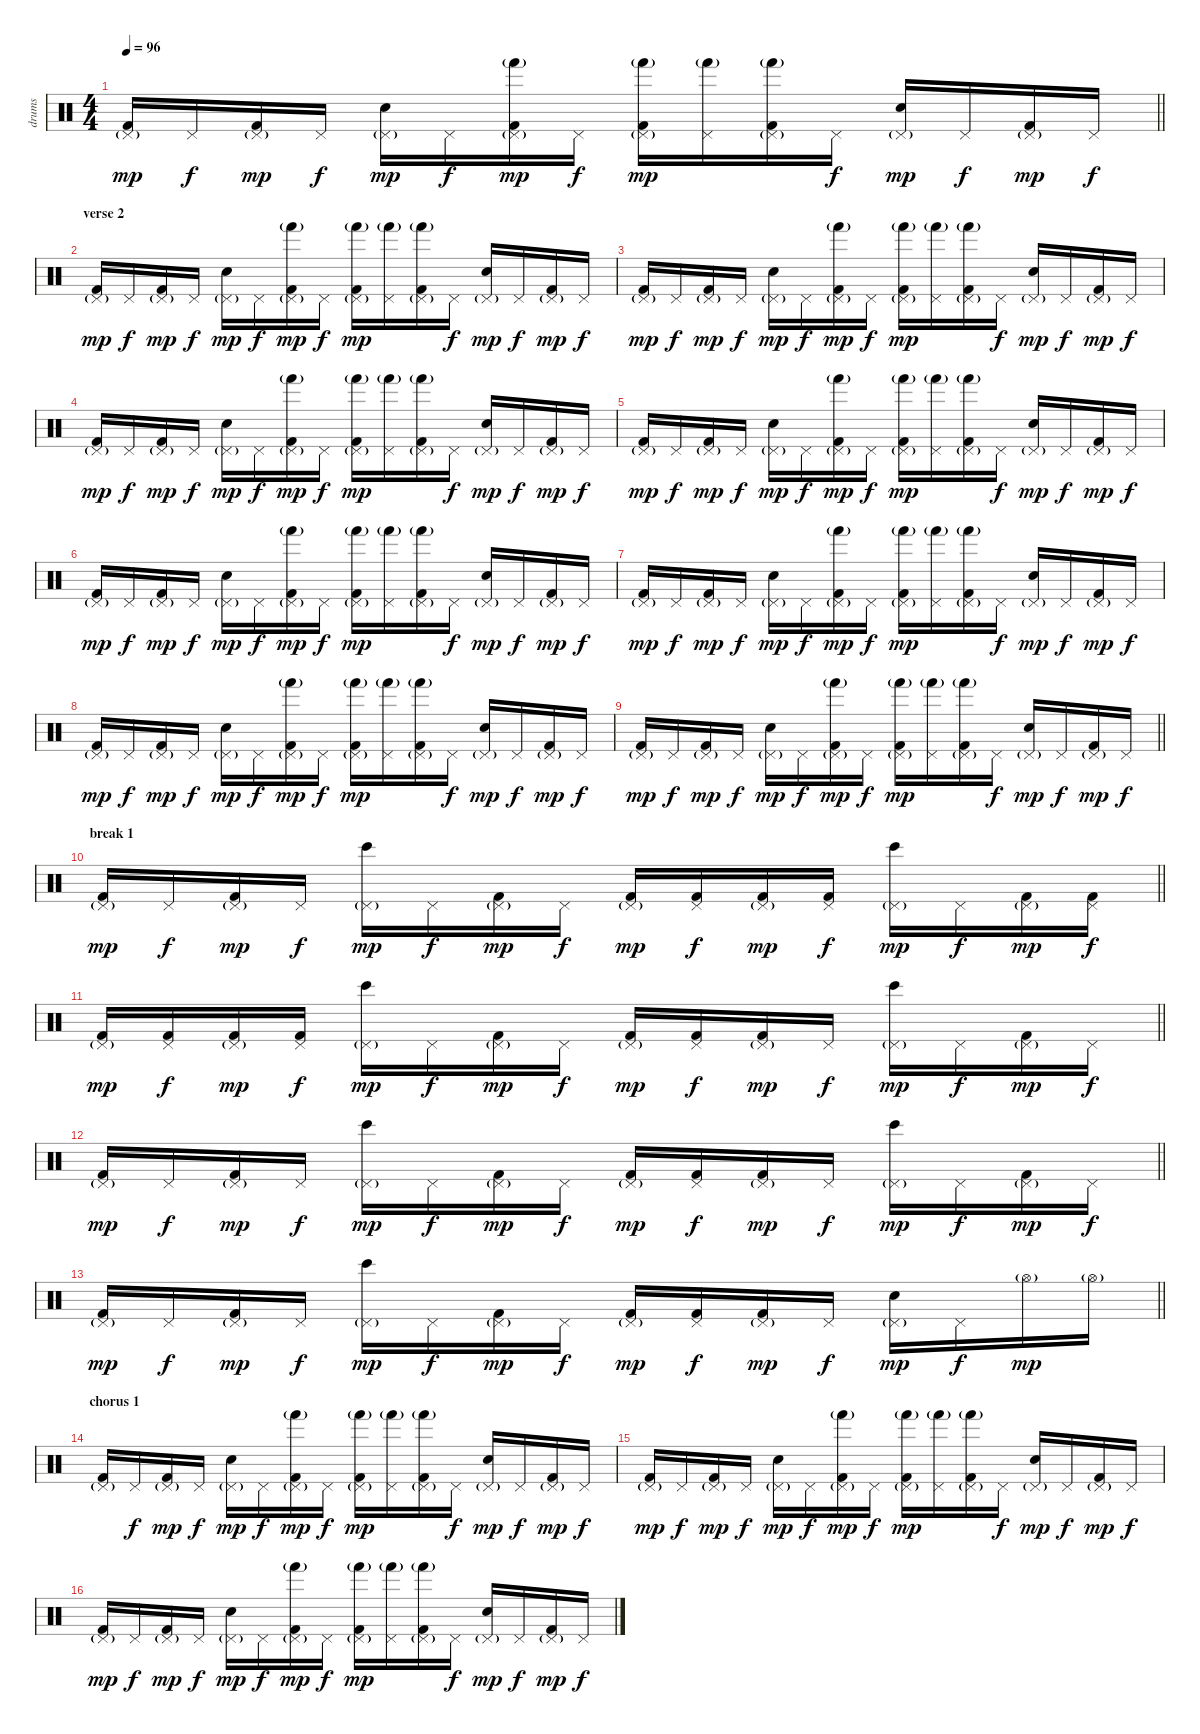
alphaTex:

\track ("drums" "drums") {instrument percussion}
\staff {score}
\articulation defaults
\ts (4 4)
\tempo 96
\clef neutral
\barLineRight lightlight
\ks c
("Kick (hit) 2" "Pedal Hi-Hat (hit)"{g}).16{dy mp} "Pedal Hi-Hat (hit)".16{dy f} ("Kick (hit) 2" "Pedal Hi-Hat (hit)"{g}).16{dy mp} "Pedal Hi-Hat (hit)".16{dy f} ("Snare (hit) 2" "Pedal Hi-Hat (hit)"{g}).16{dy mp} "Pedal Hi-Hat (hit)".16{dy f} ("Kick (hit) 2" "Hand (hit)"{g} "Pedal Hi-Hat (hit)"{g}).16{dy mp} "Pedal Hi-Hat (hit)".16{dy f} ("Kick (hit) 2" "Hand (hit)"{g} "Pedal Hi-Hat (hit)"{g}).16{dy mp} ("Hand (hit)"{g} "Pedal Hi-Hat (hit)").16 ("Kick (hit) 2" "Hand (hit)"{g} "Pedal Hi-Hat (hit)"{g}).16 "Pedal Hi-Hat (hit)".16{dy f} ("Snare (hit) 2" "Pedal Hi-Hat (hit)"{g}).16{dy mp} "Pedal Hi-Hat (hit)".16{dy f} ("Kick (hit) 2" "Pedal Hi-Hat (hit)"{g}).16{dy mp} "Pedal Hi-Hat (hit)".16{dy f} |
\section ("" "verse 2")
("Kick (hit) 2" "Pedal Hi-Hat (hit)"{g}).16{dy mp} "Pedal Hi-Hat (hit)".16{dy f} ("Kick (hit) 2" "Pedal Hi-Hat (hit)"{g}).16{dy mp} "Pedal Hi-Hat (hit)".16{dy f} ("Snare (hit) 2" "Pedal Hi-Hat (hit)"{g}).16{dy mp} "Pedal Hi-Hat (hit)".16{dy f} ("Kick (hit) 2" "Hand (hit)"{g} "Pedal Hi-Hat (hit)"{g}).16{dy mp} "Pedal Hi-Hat (hit)".16{dy f} ("Kick (hit) 2" "Hand (hit)"{g} "Pedal Hi-Hat (hit)"{g}).16{dy mp} ("Hand (hit)"{g} "Pedal Hi-Hat (hit)").16 ("Kick (hit) 2" "Hand (hit)"{g} "Pedal Hi-Hat (hit)"{g}).16 "Pedal Hi-Hat (hit)".16{dy f} ("Snare (hit) 2" "Pedal Hi-Hat (hit)"{g}).16{dy mp} "Pedal Hi-Hat (hit)".16{dy f} ("Kick (hit) 2" "Pedal Hi-Hat (hit)"{g}).16{dy mp} "Pedal Hi-Hat (hit)".16{dy f} |
("Kick (hit) 2" "Pedal Hi-Hat (hit)"{g}).16{dy mp} "Pedal Hi-Hat (hit)".16{dy f} ("Kick (hit) 2" "Pedal Hi-Hat (hit)"{g}).16{dy mp} "Pedal Hi-Hat (hit)".16{dy f} ("Snare (hit) 2" "Pedal Hi-Hat (hit)"{g}).16{dy mp} "Pedal Hi-Hat (hit)".16{dy f} ("Kick (hit) 2" "Hand (hit)"{g} "Pedal Hi-Hat (hit)"{g}).16{dy mp} "Pedal Hi-Hat (hit)".16{dy f} ("Kick (hit) 2" "Hand (hit)"{g} "Pedal Hi-Hat (hit)"{g}).16{dy mp} ("Hand (hit)"{g} "Pedal Hi-Hat (hit)").16 ("Kick (hit) 2" "Hand (hit)"{g} "Pedal Hi-Hat (hit)"{g}).16 "Pedal Hi-Hat (hit)".16{dy f} ("Snare (hit) 2" "Pedal Hi-Hat (hit)"{g}).16{dy mp} "Pedal Hi-Hat (hit)".16{dy f} ("Kick (hit) 2" "Pedal Hi-Hat (hit)"{g}).16{dy mp} "Pedal Hi-Hat (hit)".16{dy f} |
("Kick (hit) 2" "Pedal Hi-Hat (hit)"{g}).16{dy mp} "Pedal Hi-Hat (hit)".16{dy f} ("Kick (hit) 2" "Pedal Hi-Hat (hit)"{g}).16{dy mp} "Pedal Hi-Hat (hit)".16{dy f} ("Snare (hit) 2" "Pedal Hi-Hat (hit)"{g}).16{dy mp} "Pedal Hi-Hat (hit)".16{dy f} ("Kick (hit) 2" "Hand (hit)"{g} "Pedal Hi-Hat (hit)"{g}).16{dy mp} "Pedal Hi-Hat (hit)".16{dy f} ("Kick (hit) 2" "Hand (hit)"{g} "Pedal Hi-Hat (hit)"{g}).16{dy mp} ("Hand (hit)"{g} "Pedal Hi-Hat (hit)").16 ("Kick (hit) 2" "Hand (hit)"{g} "Pedal Hi-Hat (hit)"{g}).16 "Pedal Hi-Hat (hit)".16{dy f} ("Snare (hit) 2" "Pedal Hi-Hat (hit)"{g}).16{dy mp} "Pedal Hi-Hat (hit)".16{dy f} ("Kick (hit) 2" "Pedal Hi-Hat (hit)"{g}).16{dy mp} "Pedal Hi-Hat (hit)".16{dy f} |
("Kick (hit) 2" "Pedal Hi-Hat (hit)"{g}).16{dy mp} "Pedal Hi-Hat (hit)".16{dy f} ("Kick (hit) 2" "Pedal Hi-Hat (hit)"{g}).16{dy mp} "Pedal Hi-Hat (hit)".16{dy f} ("Snare (hit) 2" "Pedal Hi-Hat (hit)"{g}).16{dy mp} "Pedal Hi-Hat (hit)".16{dy f} ("Kick (hit) 2" "Hand (hit)"{g} "Pedal Hi-Hat (hit)"{g}).16{dy mp} "Pedal Hi-Hat (hit)".16{dy f} ("Kick (hit) 2" "Hand (hit)"{g} "Pedal Hi-Hat (hit)"{g}).16{dy mp} ("Hand (hit)"{g} "Pedal Hi-Hat (hit)").16 ("Kick (hit) 2" "Hand (hit)"{g} "Pedal Hi-Hat (hit)"{g}).16 "Pedal Hi-Hat (hit)".16{dy f} ("Snare (hit) 2" "Pedal Hi-Hat (hit)"{g}).16{dy mp} "Pedal Hi-Hat (hit)".16{dy f} ("Kick (hit) 2" "Pedal Hi-Hat (hit)"{g}).16{dy mp} "Pedal Hi-Hat (hit)".16{dy f} |
("Kick (hit) 2" "Pedal Hi-Hat (hit)"{g}).16{dy mp} "Pedal Hi-Hat (hit)".16{dy f} ("Kick (hit) 2" "Pedal Hi-Hat (hit)"{g}).16{dy mp} "Pedal Hi-Hat (hit)".16{dy f} ("Snare (hit) 2" "Pedal Hi-Hat (hit)"{g}).16{dy mp} "Pedal Hi-Hat (hit)".16{dy f} ("Kick (hit) 2" "Hand (hit)"{g} "Pedal Hi-Hat (hit)"{g}).16{dy mp} "Pedal Hi-Hat (hit)".16{dy f} ("Kick (hit) 2" "Hand (hit)"{g} "Pedal Hi-Hat (hit)"{g}).16{dy mp} ("Hand (hit)"{g} "Pedal Hi-Hat (hit)").16 ("Kick (hit) 2" "Hand (hit)"{g} "Pedal Hi-Hat (hit)"{g}).16 "Pedal Hi-Hat (hit)".16{dy f} ("Snare (hit) 2" "Pedal Hi-Hat (hit)"{g}).16{dy mp} "Pedal Hi-Hat (hit)".16{dy f} ("Kick (hit) 2" "Pedal Hi-Hat (hit)"{g}).16{dy mp} "Pedal Hi-Hat (hit)".16{dy f} |
("Kick (hit) 2" "Pedal Hi-Hat (hit)"{g}).16{dy mp} "Pedal Hi-Hat (hit)".16{dy f} ("Kick (hit) 2" "Pedal Hi-Hat (hit)"{g}).16{dy mp} "Pedal Hi-Hat (hit)".16{dy f} ("Snare (hit) 2" "Pedal Hi-Hat (hit)"{g}).16{dy mp} "Pedal Hi-Hat (hit)".16{dy f} ("Kick (hit) 2" "Hand (hit)"{g} "Pedal Hi-Hat (hit)"{g}).16{dy mp} "Pedal Hi-Hat (hit)".16{dy f} ("Kick (hit) 2" "Hand (hit)"{g} "Pedal Hi-Hat (hit)"{g}).16{dy mp} ("Hand (hit)"{g} "Pedal Hi-Hat (hit)").16 ("Kick (hit) 2" "Hand (hit)"{g} "Pedal Hi-Hat (hit)"{g}).16 "Pedal Hi-Hat (hit)".16{dy f} ("Snare (hit) 2" "Pedal Hi-Hat (hit)"{g}).16{dy mp} "Pedal Hi-Hat (hit)".16{dy f} ("Kick (hit) 2" "Pedal Hi-Hat (hit)"{g}).16{dy mp} "Pedal Hi-Hat (hit)".16{dy f} |
("Kick (hit) 2" "Pedal Hi-Hat (hit)"{g}).16{dy mp} "Pedal Hi-Hat (hit)".16{dy f} ("Kick (hit) 2" "Pedal Hi-Hat (hit)"{g}).16{dy mp} "Pedal Hi-Hat (hit)".16{dy f} ("Snare (hit) 2" "Pedal Hi-Hat (hit)"{g}).16{dy mp} "Pedal Hi-Hat (hit)".16{dy f} ("Kick (hit) 2" "Hand (hit)"{g} "Pedal Hi-Hat (hit)"{g}).16{dy mp} "Pedal Hi-Hat (hit)".16{dy f} ("Kick (hit) 2" "Hand (hit)"{g} "Pedal Hi-Hat (hit)"{g}).16{dy mp} ("Hand (hit)"{g} "Pedal Hi-Hat (hit)").16 ("Kick (hit) 2" "Hand (hit)"{g} "Pedal Hi-Hat (hit)"{g}).16 "Pedal Hi-Hat (hit)".16{dy f} ("Snare (hit) 2" "Pedal Hi-Hat (hit)"{g}).16{dy mp} "Pedal Hi-Hat (hit)".16{dy f} ("Kick (hit) 2" "Pedal Hi-Hat (hit)"{g}).16{dy mp} "Pedal Hi-Hat (hit)".16{dy f} |
\barLineRight lightlight
("Kick (hit) 2" "Pedal Hi-Hat (hit)"{g}).16{dy mp} "Pedal Hi-Hat (hit)".16{dy f} ("Kick (hit) 2" "Pedal Hi-Hat (hit)"{g}).16{dy mp} "Pedal Hi-Hat (hit)".16{dy f} ("Snare (hit) 2" "Pedal Hi-Hat (hit)"{g}).16{dy mp} "Pedal Hi-Hat (hit)".16{dy f} ("Kick (hit) 2" "Hand (hit)"{g} "Pedal Hi-Hat (hit)"{g}).16{dy mp} "Pedal Hi-Hat (hit)".16{dy f} ("Kick (hit) 2" "Hand (hit)"{g} "Pedal Hi-Hat (hit)"{g}).16{dy mp} ("Hand (hit)"{g} "Pedal Hi-Hat (hit)").16 ("Kick (hit) 2" "Hand (hit)"{g} "Pedal Hi-Hat (hit)"{g}).16 "Pedal Hi-Hat (hit)".16{dy f} ("Snare (hit) 2" "Pedal Hi-Hat (hit)"{g}).16{dy mp} "Pedal Hi-Hat (hit)".16{dy f} ("Kick (hit) 2" "Pedal Hi-Hat (hit)"{g}).16{dy mp} "Pedal Hi-Hat (hit)".16{dy f} |
\section ("" "break 1")
\barLineRight lightlight
("Kick (hit) 2" "Pedal Hi-Hat (hit)"{g}).16{dy mp} "Pedal Hi-Hat (hit)".16{dy f} ("Kick (hit) 2" "Pedal Hi-Hat (hit)"{g}).16{dy mp} "Pedal Hi-Hat (hit)".16{dy f} ("Bongo High (hit)" "Pedal Hi-Hat (hit)"{g}).16{dy mp} "Pedal Hi-Hat (hit)".16{dy f} ("Kick (hit) 2" "Pedal Hi-Hat (hit)"{g}).16{dy mp} "Pedal Hi-Hat (hit)".16{dy f} ("Kick (hit) 2" "Pedal Hi-Hat (hit)"{g}).16{dy mp} ("Kick (hit) 2" "Pedal Hi-Hat (hit)").16{dy f} ("Kick (hit) 2" "Pedal Hi-Hat (hit)"{g}).16{dy mp} ("Kick (hit) 2" "Pedal Hi-Hat (hit)").16{dy f} ("Bongo High (hit)" "Pedal Hi-Hat (hit)"{g}).16{dy mp} "Pedal Hi-Hat (hit)".16{dy f} ("Kick (hit) 2" "Pedal Hi-Hat (hit)"{g}).16{dy mp} ("Kick (hit) 2" "Pedal Hi-Hat (hit)").16{dy f} |
\barLineRight lightlight
("Kick (hit) 2" "Pedal Hi-Hat (hit)"{g}).16{dy mp} ("Kick (hit) 2" "Pedal Hi-Hat (hit)").16{dy f} ("Kick (hit) 2" "Pedal Hi-Hat (hit)"{g}).16{dy mp} ("Kick (hit) 2" "Pedal Hi-Hat (hit)").16{dy f} ("Bongo High (hit)" "Pedal Hi-Hat (hit)"{g}).16{dy mp} "Pedal Hi-Hat (hit)".16{dy f} ("Kick (hit) 2" "Pedal Hi-Hat (hit)"{g}).16{dy mp} "Pedal Hi-Hat (hit)".16{dy f} ("Kick (hit) 2" "Pedal Hi-Hat (hit)"{g}).16{dy mp} ("Kick (hit) 2" "Pedal Hi-Hat (hit)").16{dy f} ("Kick (hit) 2" "Pedal Hi-Hat (hit)"{g}).16{dy mp} "Pedal Hi-Hat (hit)".16{dy f} ("Bongo High (hit)" "Pedal Hi-Hat (hit)"{g}).16{dy mp} "Pedal Hi-Hat (hit)".16{dy f} ("Kick (hit) 2" "Pedal Hi-Hat (hit)"{g}).16{dy mp} "Pedal Hi-Hat (hit)".16{dy f} |
\barLineRight lightlight
("Kick (hit) 2" "Pedal Hi-Hat (hit)"{g}).16{dy mp} "Pedal Hi-Hat (hit)".16{dy f} ("Kick (hit) 2" "Pedal Hi-Hat (hit)"{g}).16{dy mp} "Pedal Hi-Hat (hit)".16{dy f} ("Bongo High (hit)" "Pedal Hi-Hat (hit)"{g}).16{dy mp} "Pedal Hi-Hat (hit)".16{dy f} ("Kick (hit) 2" "Pedal Hi-Hat (hit)"{g}).16{dy mp} "Pedal Hi-Hat (hit)".16{dy f} ("Kick (hit) 2" "Pedal Hi-Hat (hit)"{g}).16{dy mp} ("Kick (hit) 2" "Pedal Hi-Hat (hit)").16{dy f} ("Kick (hit) 2" "Pedal Hi-Hat (hit)"{g}).16{dy mp} "Pedal Hi-Hat (hit)".16{dy f} ("Bongo High (hit)" "Pedal Hi-Hat (hit)"{g}).16{dy mp} "Pedal Hi-Hat (hit)".16{dy f} ("Kick (hit) 2" "Pedal Hi-Hat (hit)"{g}).16{dy mp} "Pedal Hi-Hat (hit)".16{dy f} |
\barLineRight lightlight
("Kick (hit) 2" "Pedal Hi-Hat (hit)"{g}).16{dy mp} "Pedal Hi-Hat (hit)".16{dy f} ("Kick (hit) 2" "Pedal Hi-Hat (hit)"{g}).16{dy mp} "Pedal Hi-Hat (hit)".16{dy f} ("Bongo High (hit)" "Pedal Hi-Hat (hit)"{g}).16{dy mp} "Pedal Hi-Hat (hit)".16{dy f} ("Kick (hit) 2" "Pedal Hi-Hat (hit)"{g}).16{dy mp} "Pedal Hi-Hat (hit)".16{dy f} ("Kick (hit) 2" "Pedal Hi-Hat (hit)"{g}).16{dy mp} ("Kick (hit) 2" "Pedal Hi-Hat (hit)").16{dy f} ("Kick (hit) 2" "Pedal Hi-Hat (hit)"{g}).16{dy mp} "Pedal Hi-Hat (hit)".16{dy f} ("Snare (hit) 2" "Pedal Hi-Hat (hit)"{g}).16{dy mp} "Pedal Hi-Hat (hit)".16{dy f} "Hi-Hat (open)"{g}.16{dy mp} "Hi-Hat (open)"{g}.16 |
\section ("" "chorus 1")
("Kick (hit) 2" "Pedal Hi-Hat (hit)"{g}).16 "Pedal Hi-Hat (hit)".16{dy f} ("Kick (hit) 2" "Pedal Hi-Hat (hit)"{g}).16{dy mp} "Pedal Hi-Hat (hit)".16{dy f} ("Snare (hit) 2" "Pedal Hi-Hat (hit)"{g}).16{dy mp} "Pedal Hi-Hat (hit)".16{dy f} ("Kick (hit) 2" "Hand (hit)"{g} "Pedal Hi-Hat (hit)"{g}).16{dy mp} "Pedal Hi-Hat (hit)".16{dy f} ("Kick (hit) 2" "Hand (hit)"{g} "Pedal Hi-Hat (hit)"{g}).16{dy mp} ("Hand (hit)"{g} "Pedal Hi-Hat (hit)").16 ("Kick (hit) 2" "Hand (hit)"{g} "Pedal Hi-Hat (hit)"{g}).16 "Pedal Hi-Hat (hit)".16{dy f} ("Snare (hit) 2" "Pedal Hi-Hat (hit)"{g}).16{dy mp} "Pedal Hi-Hat (hit)".16{dy f} ("Kick (hit) 2" "Pedal Hi-Hat (hit)"{g}).16{dy mp} "Pedal Hi-Hat (hit)".16{dy f} |
("Kick (hit) 2" "Pedal Hi-Hat (hit)"{g}).16{dy mp} "Pedal Hi-Hat (hit)".16{dy f} ("Kick (hit) 2" "Pedal Hi-Hat (hit)"{g}).16{dy mp} "Pedal Hi-Hat (hit)".16{dy f} ("Snare (hit) 2" "Pedal Hi-Hat (hit)"{g}).16{dy mp} "Pedal Hi-Hat (hit)".16{dy f} ("Kick (hit) 2" "Hand (hit)"{g} "Pedal Hi-Hat (hit)"{g}).16{dy mp} "Pedal Hi-Hat (hit)".16{dy f} ("Kick (hit) 2" "Hand (hit)"{g} "Pedal Hi-Hat (hit)"{g}).16{dy mp} ("Hand (hit)"{g} "Pedal Hi-Hat (hit)").16 ("Kick (hit) 2" "Hand (hit)"{g} "Pedal Hi-Hat (hit)"{g}).16 "Pedal Hi-Hat (hit)".16{dy f} ("Snare (hit) 2" "Pedal Hi-Hat (hit)"{g}).16{dy mp} "Pedal Hi-Hat (hit)".16{dy f} ("Kick (hit) 2" "Pedal Hi-Hat (hit)"{g}).16{dy mp} "Pedal Hi-Hat (hit)".16{dy f} |
("Kick (hit) 2" "Pedal Hi-Hat (hit)"{g}).16{dy mp} "Pedal Hi-Hat (hit)".16{dy f} ("Kick (hit) 2" "Pedal Hi-Hat (hit)"{g}).16{dy mp} "Pedal Hi-Hat (hit)".16{dy f} ("Snare (hit) 2" "Pedal Hi-Hat (hit)"{g}).16{dy mp} "Pedal Hi-Hat (hit)".16{dy f} ("Kick (hit) 2" "Hand (hit)"{g} "Pedal Hi-Hat (hit)"{g}).16{dy mp} "Pedal Hi-Hat (hit)".16{dy f} ("Kick (hit) 2" "Hand (hit)"{g} "Pedal Hi-Hat (hit)"{g}).16{dy mp} ("Hand (hit)"{g} "Pedal Hi-Hat (hit)").16 ("Kick (hit) 2" "Hand (hit)"{g} "Pedal Hi-Hat (hit)"{g}).16 "Pedal Hi-Hat (hit)".16{dy f} ("Snare (hit) 2" "Pedal Hi-Hat (hit)"{g}).16{dy mp} "Pedal Hi-Hat (hit)".16{dy f} ("Kick (hit) 2" "Pedal Hi-Hat (hit)"{g}).16{dy mp} "Pedal Hi-Hat (hit)".16{dy f}
